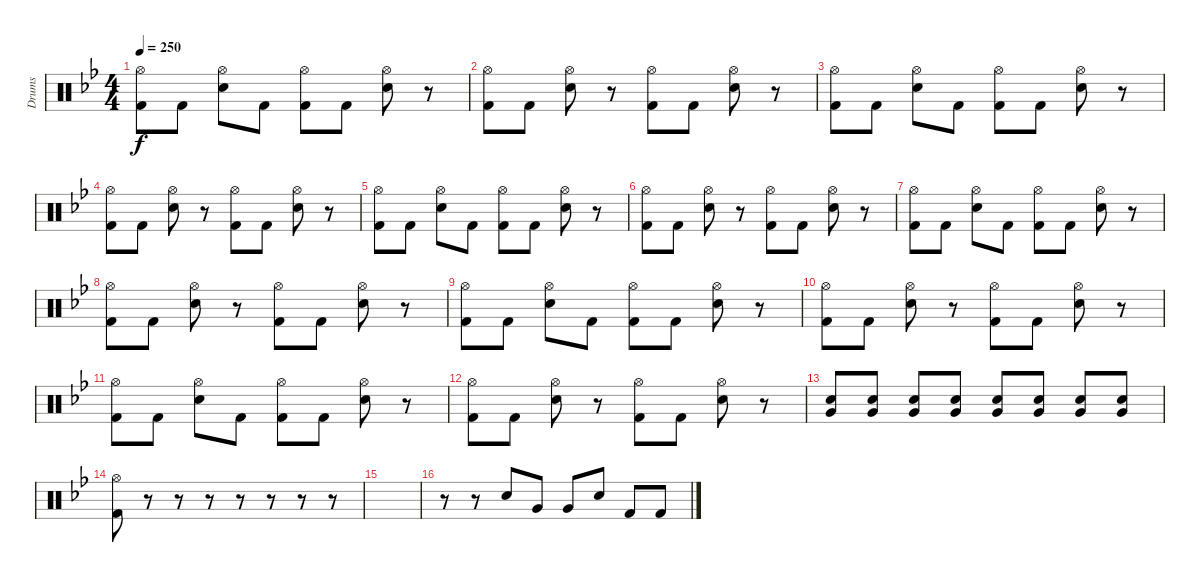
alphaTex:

\track ("Drums" "Drums") {instrument percussion}
\staff {score}
\articulation defaults
\ts (4 4)
\tempo 250
\clef neutral
\ks bb
("Hi-Hat (open)" "Kick (hit) 2").8{dy f} "Kick (hit) 2".8 ("Hi-Hat (open)" "Electric Snare (hit)").8 "Kick (hit) 2".8 ("Hi-Hat (open)" "Kick (hit) 2").8 "Kick (hit) 2".8 ("Hi-Hat (open)" "Electric Snare (hit)").8 r.8 |
("Hi-Hat (open)" "Kick (hit) 2").8 "Kick (hit) 2".8 ("Hi-Hat (open)" "Electric Snare (hit)").8 r.8 ("Hi-Hat (open)" "Kick (hit) 2").8 "Kick (hit) 2".8 ("Hi-Hat (open)" "Electric Snare (hit)").8 r.8 |
("Hi-Hat (open)" "Kick (hit) 2").8 "Kick (hit) 2".8 ("Hi-Hat (open)" "Electric Snare (hit)").8 "Kick (hit) 2".8 ("Hi-Hat (open)" "Kick (hit) 2").8 "Kick (hit) 2".8 ("Hi-Hat (open)" "Electric Snare (hit)").8 r.8 |
("Hi-Hat (open)" "Kick (hit) 2").8 "Kick (hit) 2".8 ("Hi-Hat (open)" "Electric Snare (hit)").8 r.8 ("Hi-Hat (open)" "Kick (hit) 2").8 "Kick (hit) 2".8 ("Hi-Hat (open)" "Electric Snare (hit)").8 r.8 |
("Hi-Hat (open)" "Kick (hit) 2").8 "Kick (hit) 2".8 ("Hi-Hat (open)" "Electric Snare (hit)").8 "Kick (hit) 2".8 ("Hi-Hat (open)" "Kick (hit) 2").8 "Kick (hit) 2".8 ("Hi-Hat (open)" "Electric Snare (hit)").8 r.8 |
("Hi-Hat (open)" "Kick (hit) 2").8 "Kick (hit) 2".8 ("Hi-Hat (open)" "Electric Snare (hit)").8 r.8 ("Hi-Hat (open)" "Kick (hit) 2").8 "Kick (hit) 2".8 ("Hi-Hat (open)" "Electric Snare (hit)").8 r.8 |
("Hi-Hat (open)" "Kick (hit) 2").8 "Kick (hit) 2".8 ("Hi-Hat (open)" "Electric Snare (hit)").8 "Kick (hit) 2".8 ("Hi-Hat (open)" "Kick (hit) 2").8 "Kick (hit) 2".8 ("Hi-Hat (open)" "Electric Snare (hit)").8 r.8 |
("Hi-Hat (open)" "Kick (hit) 2").8 "Kick (hit) 2".8 ("Hi-Hat (open)" "Electric Snare (hit)").8 r.8 ("Hi-Hat (open)" "Kick (hit) 2").8 "Kick (hit) 2".8 ("Hi-Hat (open)" "Electric Snare (hit)").8 r.8 |
("Hi-Hat (open)" "Kick (hit) 2").8 "Kick (hit) 2".8 ("Hi-Hat (open)" "Electric Snare (hit)").8 "Kick (hit) 2".8 ("Hi-Hat (open)" "Kick (hit) 2").8 "Kick (hit) 2".8 ("Hi-Hat (open)" "Electric Snare (hit)").8 r.8 |
("Hi-Hat (open)" "Kick (hit) 2").8 "Kick (hit) 2".8 ("Hi-Hat (open)" "Electric Snare (hit)").8 r.8 ("Hi-Hat (open)" "Kick (hit) 2").8 "Kick (hit) 2".8 ("Hi-Hat (open)" "Electric Snare (hit)").8 r.8 |
("Hi-Hat (open)" "Kick (hit) 2").8 "Kick (hit) 2".8 ("Hi-Hat (open)" "Electric Snare (hit)").8 "Kick (hit) 2".8 ("Hi-Hat (open)" "Kick (hit) 2").8 "Kick (hit) 2".8 ("Hi-Hat (open)" "Electric Snare (hit)").8 r.8 |
("Hi-Hat (open)" "Kick (hit) 2").8 "Kick (hit) 2".8 ("Hi-Hat (open)" "Electric Snare (hit)").8 r.8 ("Hi-Hat (open)" "Kick (hit) 2").8 "Kick (hit) 2".8 ("Hi-Hat (open)" "Electric Snare (hit)").8 r.8 |
("Electric Snare (hit)" "Very Low Tom (hit)").8 ("Electric Snare (hit)" "Very Low Tom (hit)").8 ("Electric Snare (hit)" "Very Low Tom (hit)").8 ("Electric Snare (hit)" "Very Low Tom (hit)").8 ("Electric Snare (hit)" "Very Low Tom (hit)").8 ("Electric Snare (hit)" "Very Low Tom (hit)").8 ("Electric Snare (hit)" "Very Low Tom (hit)").8 ("Electric Snare (hit)" "Very Low Tom (hit)").8 |
("Hi-Hat (open)" "Kick (hit) 2").8 r.8 r.8 r.8 r.8 r.8 r.8 r.8 |
|
r.8 r.8 "Electric Snare (hit)".8 "Very Low Tom (hit)".8 "Very Low Tom (hit)".8 "Electric Snare (hit)".8 "Kick (hit) 2".8 "Kick (hit) 2".8
